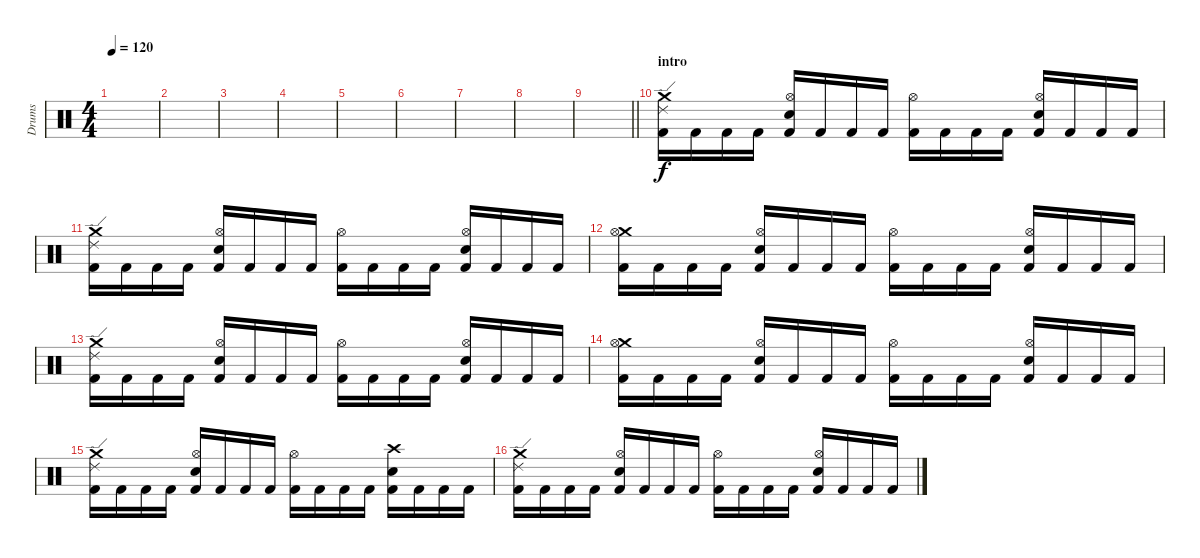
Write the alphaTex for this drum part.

\track ("Drums" "Drums") {instrument percussion}
\staff {score}
\articulation defaults
\ts (4 4)
\tempo 120
\clef neutral
\ks c
|
|
|
|
|
|
|
|
\barLineRight lightlight
|
\section ("" "intro")
("Crash medium (hit)" "Ride (edge) 2" "Kick (hit) 2").16 "Kick (hit) 2".16 "Kick (hit) 2".16 "Kick (hit) 2".16 ("Hi-Hat (open)" "Electric Snare (hit)" "Kick (hit) 2").16 "Kick (hit) 2".16 "Kick (hit) 2".16 "Kick (hit) 2".16 ("Hi-Hat (open)" "Kick (hit) 2").16 "Kick (hit) 2".16 "Kick (hit) 2".16 "Kick (hit) 2".16 ("Hi-Hat (open)" "Electric Snare (hit)" "Kick (hit) 2").16 "Kick (hit) 2".16 "Kick (hit) 2".16 "Kick (hit) 2".16 |
("Crash medium (hit)" "Ride (edge) 2" "Kick (hit) 2").16 "Kick (hit) 2".16 "Kick (hit) 2".16 "Kick (hit) 2".16 ("Hi-Hat (open)" "Electric Snare (hit)" "Kick (hit) 2").16 "Kick (hit) 2".16 "Kick (hit) 2".16 "Kick (hit) 2".16 ("Hi-Hat (open)" "Kick (hit) 2").16 "Kick (hit) 2".16 "Kick (hit) 2".16 "Kick (hit) 2".16 ("Hi-Hat (open)" "Electric Snare (hit)" "Kick (hit) 2").16 "Kick (hit) 2".16 "Kick (hit) 2".16 "Kick (hit) 2".16 |
("Crash medium (hit)" "Hi-Hat (open)" "Kick (hit) 2").16 "Kick (hit) 2".16 "Kick (hit) 2".16 "Kick (hit) 2".16 ("Hi-Hat (open)" "Electric Snare (hit)" "Kick (hit) 2").16 "Kick (hit) 2".16 "Kick (hit) 2".16 "Kick (hit) 2".16 ("Hi-Hat (open)" "Kick (hit) 2").16 "Kick (hit) 2".16 "Kick (hit) 2".16 "Kick (hit) 2".16 ("Hi-Hat (open)" "Electric Snare (hit)" "Kick (hit) 2").16 "Kick (hit) 2".16 "Kick (hit) 2".16 "Kick (hit) 2".16 |
("Crash medium (hit)" "Ride (edge) 2" "Kick (hit) 2").16 "Kick (hit) 2".16 "Kick (hit) 2".16 "Kick (hit) 2".16 ("Hi-Hat (open)" "Electric Snare (hit)" "Kick (hit) 2").16 "Kick (hit) 2".16 "Kick (hit) 2".16 "Kick (hit) 2".16 ("Hi-Hat (open)" "Kick (hit) 2").16 "Kick (hit) 2".16 "Kick (hit) 2".16 "Kick (hit) 2".16 ("Hi-Hat (open)" "Electric Snare (hit)" "Kick (hit) 2").16 "Kick (hit) 2".16 "Kick (hit) 2".16 "Kick (hit) 2".16 |
("Crash medium (hit)" "Hi-Hat (open)" "Kick (hit) 2").16 "Kick (hit) 2".16 "Kick (hit) 2".16 "Kick (hit) 2".16 ("Hi-Hat (open)" "Electric Snare (hit)" "Kick (hit) 2").16 "Kick (hit) 2".16 "Kick (hit) 2".16 "Kick (hit) 2".16 ("Hi-Hat (open)" "Kick (hit) 2").16 "Kick (hit) 2".16 "Kick (hit) 2".16 "Kick (hit) 2".16 ("Hi-Hat (open)" "Electric Snare (hit)" "Kick (hit) 2").16 "Kick (hit) 2".16 "Kick (hit) 2".16 "Kick (hit) 2".16 |
("Crash medium (hit)" "Ride (edge) 2" "Kick (hit) 2").16 "Kick (hit) 2".16 "Kick (hit) 2".16 "Kick (hit) 2".16 ("Hi-Hat (open)" "Electric Snare (hit)" "Kick (hit) 2").16 "Kick (hit) 2".16 "Kick (hit) 2".16 "Kick (hit) 2".16 ("Hi-Hat (open)" "Kick (hit) 2").16 "Kick (hit) 2".16 "Kick (hit) 2".16 "Kick (hit) 2".16 ("Crash high (hit)" "Electric Snare (hit)" "Kick (hit) 2").16 "Kick (hit) 2".16 "Kick (hit) 2".16 "Kick (hit) 2".16 |
("Crash medium (hit)" "Ride (edge) 2" "Kick (hit) 2").16 "Kick (hit) 2".16 "Kick (hit) 2".16 "Kick (hit) 2".16 ("Hi-Hat (open)" "Electric Snare (hit)" "Kick (hit) 2").16 "Kick (hit) 2".16 "Kick (hit) 2".16 "Kick (hit) 2".16 ("Hi-Hat (open)" "Kick (hit) 2").16 "Kick (hit) 2".16 "Kick (hit) 2".16 "Kick (hit) 2".16 ("Hi-Hat (open)" "Electric Snare (hit)" "Kick (hit) 2").16 "Kick (hit) 2".16 "Kick (hit) 2".16 "Kick (hit) 2".16
